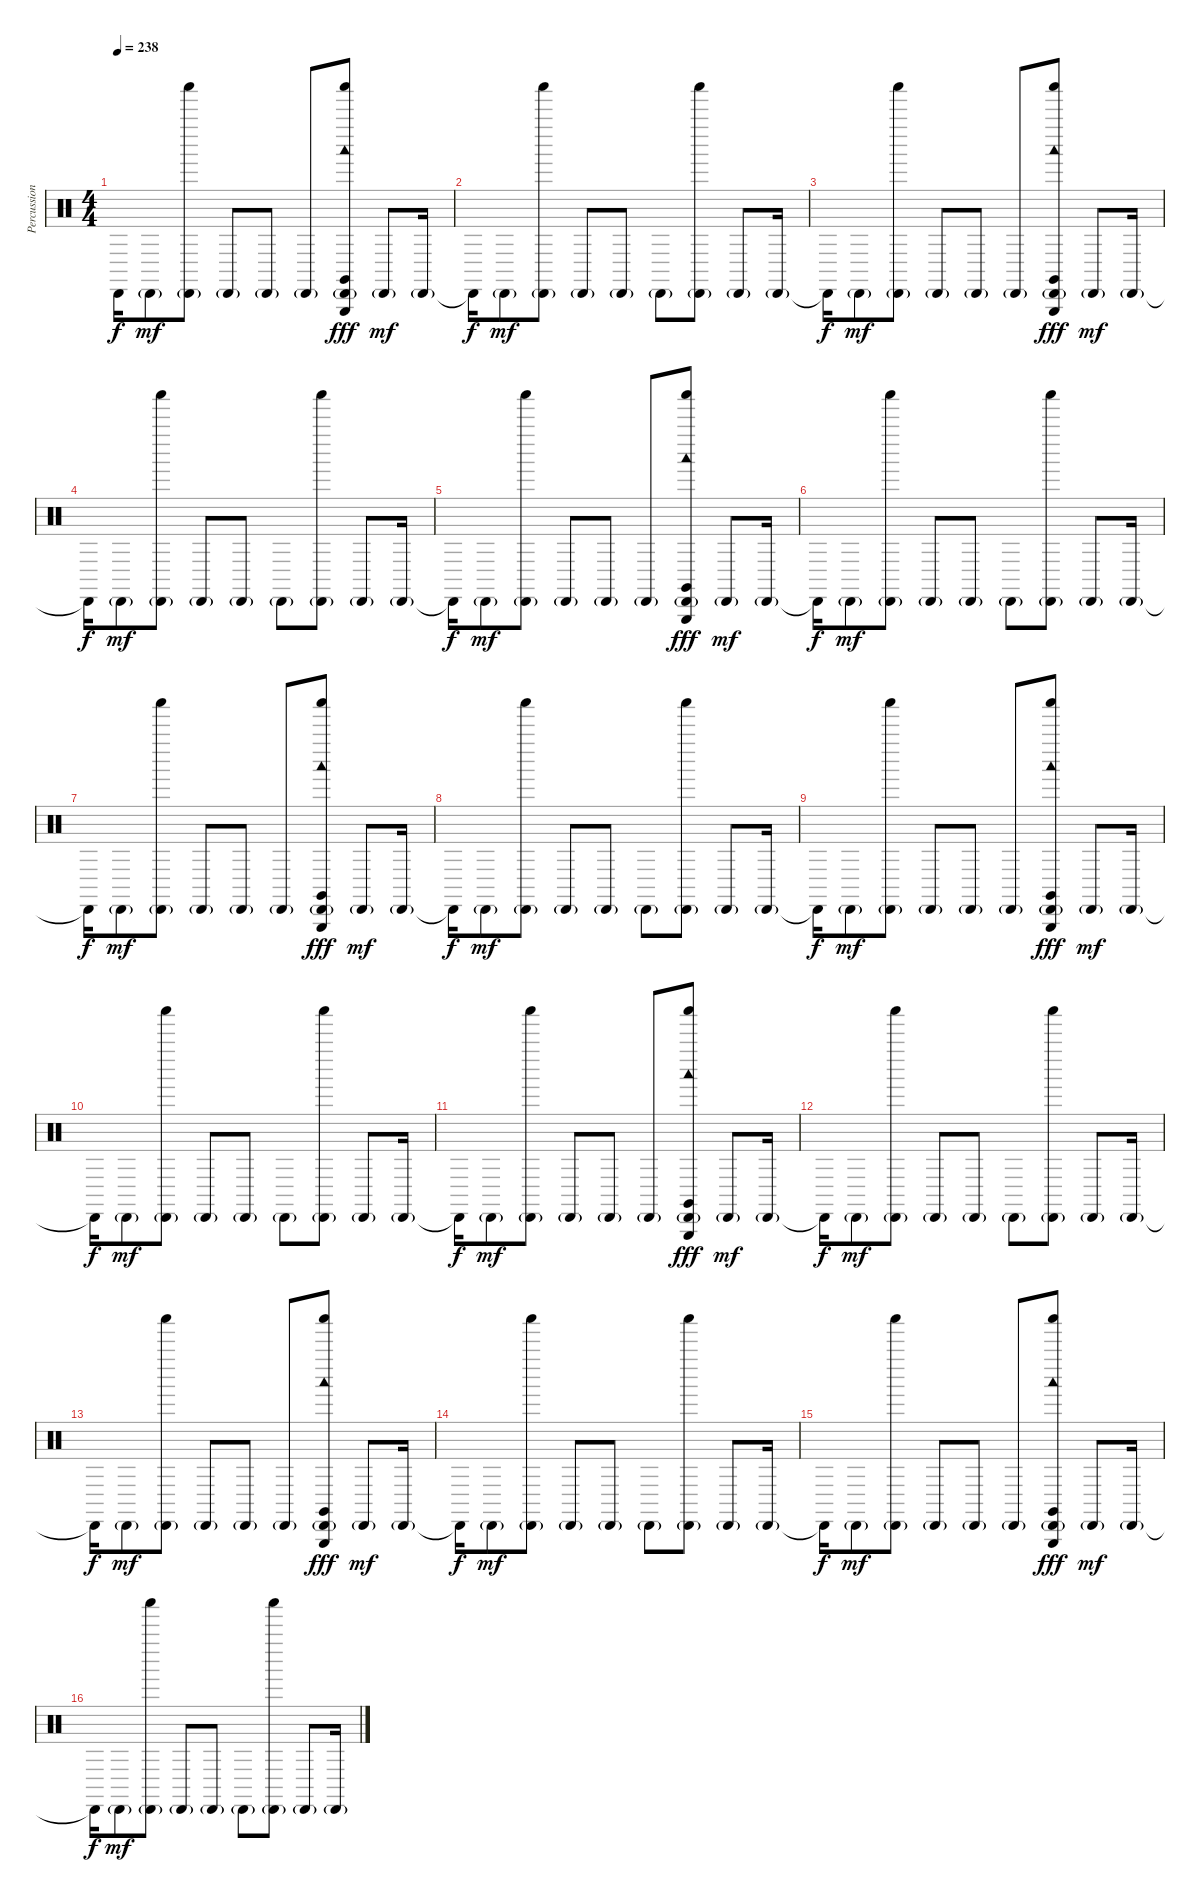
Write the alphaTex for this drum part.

\track ("Percussion" "Percussion") {instrument percussion}
\staff {score}
\articulation defaults
\ts (4 4)
\tempo 238
\clef neutral
\ks c "Cabasa (hit)"{t}.16{dy f} "Cabasa (hit)"{g}.8{dy mf}
("Shaker (hit)" "Cabasa (hit)"{g}).8 "Cabasa (hit)"{g}.8 "Cabasa (hit)"{g}.8 "Cabasa (hit)"{g}.8 ("Shaker (hit)" "Cabasa (hit)"{g} "Claves (hit)" "Woodblock low (hit)" "Triangle (hit)").8{dy fff} "Cabasa (hit)"{g}.8{dy mf} "Cabasa (hit)"{g}.16 |
"Cabasa (hit)"{t}.16{dy f} "Cabasa (hit)"{g}.8{dy mf} ("Shaker (hit)" "Cabasa (hit)"{g}).8 "Cabasa (hit)"{g}.8 "Cabasa (hit)"{g}.8 "Cabasa (hit)"{g}.8 ("Shaker (hit)" "Cabasa (hit)"{g}).8 "Cabasa (hit)"{g}.8 "Cabasa (hit)"{g}.16 |
"Cabasa (hit)"{t}.16{dy f} "Cabasa (hit)"{g}.8{dy mf} ("Shaker (hit)" "Cabasa (hit)"{g}).8 "Cabasa (hit)"{g}.8 "Cabasa (hit)"{g}.8 "Cabasa (hit)"{g}.8 ("Shaker (hit)" "Cabasa (hit)"{g} "Claves (hit)" "Woodblock low (hit)" "Triangle (hit)").8{dy fff} "Cabasa (hit)"{g}.8{dy mf} "Cabasa (hit)"{g}.16 |
"Cabasa (hit)"{t}.16{dy f} "Cabasa (hit)"{g}.8{dy mf} ("Shaker (hit)" "Cabasa (hit)"{g}).8 "Cabasa (hit)"{g}.8 "Cabasa (hit)"{g}.8 "Cabasa (hit)"{g}.8 ("Shaker (hit)" "Cabasa (hit)"{g}).8 "Cabasa (hit)"{g}.8 "Cabasa (hit)"{g}.16 |
"Cabasa (hit)"{t}.16{dy f} "Cabasa (hit)"{g}.8{dy mf} ("Shaker (hit)" "Cabasa (hit)"{g}).8 "Cabasa (hit)"{g}.8 "Cabasa (hit)"{g}.8 "Cabasa (hit)"{g}.8 ("Shaker (hit)" "Cabasa (hit)"{g} "Claves (hit)" "Woodblock low (hit)" "Triangle (hit)").8{dy fff} "Cabasa (hit)"{g}.8{dy mf} "Cabasa (hit)"{g}.16 |
"Cabasa (hit)"{t}.16{dy f} "Cabasa (hit)"{g}.8{dy mf} ("Shaker (hit)" "Cabasa (hit)"{g}).8 "Cabasa (hit)"{g}.8 "Cabasa (hit)"{g}.8 "Cabasa (hit)"{g}.8 ("Shaker (hit)" "Cabasa (hit)"{g}).8 "Cabasa (hit)"{g}.8 "Cabasa (hit)"{g}.16 |
"Cabasa (hit)"{t}.16{dy f} "Cabasa (hit)"{g}.8{dy mf} ("Shaker (hit)" "Cabasa (hit)"{g}).8 "Cabasa (hit)"{g}.8 "Cabasa (hit)"{g}.8 "Cabasa (hit)"{g}.8 ("Shaker (hit)" "Cabasa (hit)"{g} "Claves (hit)" "Woodblock low (hit)" "Triangle (hit)").8{dy fff} "Cabasa (hit)"{g}.8{dy mf} "Cabasa (hit)"{g}.16 |
"Cabasa (hit)"{t}.16{dy f} "Cabasa (hit)"{g}.8{dy mf} ("Shaker (hit)" "Cabasa (hit)"{g}).8 "Cabasa (hit)"{g}.8 "Cabasa (hit)"{g}.8 "Cabasa (hit)"{g}.8 ("Shaker (hit)" "Cabasa (hit)"{g}).8 "Cabasa (hit)"{g}.8 "Cabasa (hit)"{g}.16 |
"Cabasa (hit)"{t}.16{dy f} "Cabasa (hit)"{g}.8{dy mf} ("Shaker (hit)" "Cabasa (hit)"{g}).8 "Cabasa (hit)"{g}.8 "Cabasa (hit)"{g}.8 "Cabasa (hit)"{g}.8 ("Shaker (hit)" "Cabasa (hit)"{g} "Claves (hit)" "Woodblock low (hit)" "Triangle (hit)").8{dy fff} "Cabasa (hit)"{g}.8{dy mf} "Cabasa (hit)"{g}.16 |
"Cabasa (hit)"{t}.16{dy f} "Cabasa (hit)"{g}.8{dy mf} ("Shaker (hit)" "Cabasa (hit)"{g}).8 "Cabasa (hit)"{g}.8 "Cabasa (hit)"{g}.8 "Cabasa (hit)"{g}.8 ("Shaker (hit)" "Cabasa (hit)"{g}).8 "Cabasa (hit)"{g}.8 "Cabasa (hit)"{g}.16 |
"Cabasa (hit)"{t}.16{dy f} "Cabasa (hit)"{g}.8{dy mf} ("Shaker (hit)" "Cabasa (hit)"{g}).8 "Cabasa (hit)"{g}.8 "Cabasa (hit)"{g}.8 "Cabasa (hit)"{g}.8 ("Shaker (hit)" "Cabasa (hit)"{g} "Claves (hit)" "Woodblock low (hit)" "Triangle (hit)").8{dy fff} "Cabasa (hit)"{g}.8{dy mf} "Cabasa (hit)"{g}.16 |
"Cabasa (hit)"{t}.16{dy f} "Cabasa (hit)"{g}.8{dy mf} ("Shaker (hit)" "Cabasa (hit)"{g}).8 "Cabasa (hit)"{g}.8 "Cabasa (hit)"{g}.8 "Cabasa (hit)"{g}.8 ("Shaker (hit)" "Cabasa (hit)"{g}).8 "Cabasa (hit)"{g}.8 "Cabasa (hit)"{g}.16 |
"Cabasa (hit)"{t}.16{dy f} "Cabasa (hit)"{g}.8{dy mf} ("Shaker (hit)" "Cabasa (hit)"{g}).8 "Cabasa (hit)"{g}.8 "Cabasa (hit)"{g}.8 "Cabasa (hit)"{g}.8 ("Shaker (hit)" "Cabasa (hit)"{g} "Claves (hit)" "Woodblock low (hit)" "Triangle (hit)").8{dy fff} "Cabasa (hit)"{g}.8{dy mf} "Cabasa (hit)"{g}.16 |
"Cabasa (hit)"{t}.16{dy f} "Cabasa (hit)"{g}.8{dy mf} ("Shaker (hit)" "Cabasa (hit)"{g}).8 "Cabasa (hit)"{g}.8 "Cabasa (hit)"{g}.8 "Cabasa (hit)"{g}.8 ("Shaker (hit)" "Cabasa (hit)"{g}).8 "Cabasa (hit)"{g}.8 "Cabasa (hit)"{g}.16 |
"Cabasa (hit)"{t}.16{dy f} "Cabasa (hit)"{g}.8{dy mf} ("Shaker (hit)" "Cabasa (hit)"{g}).8 "Cabasa (hit)"{g}.8 "Cabasa (hit)"{g}.8 "Cabasa (hit)"{g}.8 ("Shaker (hit)" "Cabasa (hit)"{g} "Claves (hit)" "Woodblock low (hit)" "Triangle (hit)").8{dy fff} "Cabasa (hit)"{g}.8{dy mf} "Cabasa (hit)"{g}.16 |
"Cabasa (hit)"{t}.16{dy f} "Cabasa (hit)"{g}.8{dy mf} ("Shaker (hit)" "Cabasa (hit)"{g}).8 "Cabasa (hit)"{g}.8 "Cabasa (hit)"{g}.8 "Cabasa (hit)"{g}.8 ("Shaker (hit)" "Cabasa (hit)"{g}).8 "Cabasa (hit)"{g}.8 "Cabasa (hit)"{g}.16
